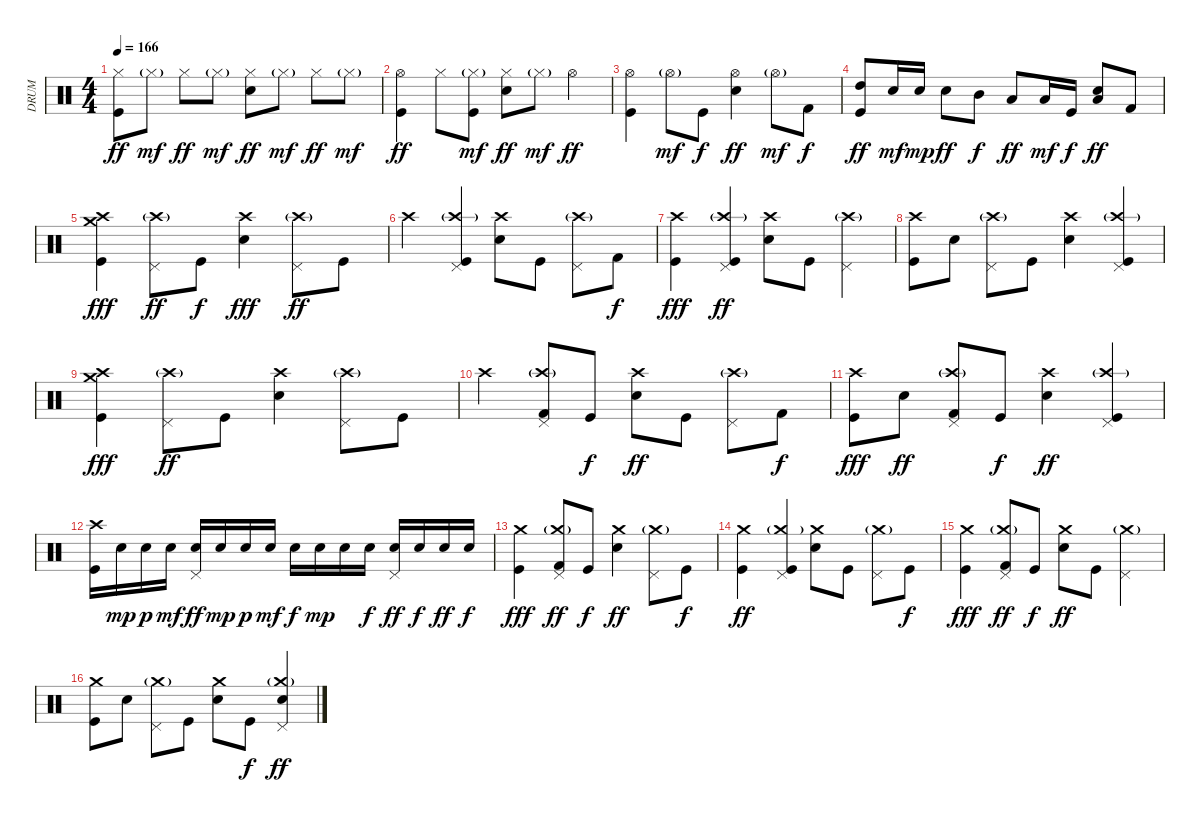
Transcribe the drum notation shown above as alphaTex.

\track ("DRUM" "DRUM") {instrument percussion}
\staff {score}
\articulation defaults
\ts (4 4)
\tempo 166
\clef neutral
\ks c
("Hi-Hat (closed)" "Kick (hit)").8{dy ff} "Hi-Hat (closed)"{g}.8{dy mf} "Hi-Hat (closed)".8{dy ff} "Hi-Hat (closed)"{g}.8{dy mf} ("Hi-Hat (closed)" "Electric Snare (hit)").8{dy ff} "Hi-Hat (closed)"{g}.8{dy mf} "Hi-Hat (closed)".8{dy ff} "Hi-Hat (closed)"{g}.8{dy mf} |
("Hi-Hat (open)" "Kick (hit)").4{dy ff} "Hi-Hat (closed)".8 ("Hi-Hat (closed)"{g} "Kick (hit)").8{dy mf} ("Hi-Hat (closed)" "Electric Snare (hit)").8{dy ff} "Hi-Hat (closed)"{g}.8{dy mf} "Hi-Hat (open)".4{dy ff} |
("Hi-Hat (open)" "Kick (hit)").4 "Hi-Hat (open)"{g}.8{dy mf} "Kick (hit)".8{dy f} ("Hi-Hat (open)" "Electric Snare (hit)").4{dy ff} "Hi-Hat (open)"{g}.8{dy mf} "Kick (hit) 2".8{dy f} |
("High Tom (hit)" "Kick (hit)").8{dy ff} "Electric Snare (hit)".16{dy mf} "Electric Snare (hit)".16{dy mp} "Snare (hit) 2".8{dy ff} "Mid Tom (hit)".8{dy f} "Low Tom (hit)".8{dy ff} "Low Tom (hit)".16{dy mf} "Kick (hit)".16{dy f} ("Electric Snare (hit)" "Low Tom (hit)").8{dy ff} "Kick (hit) 2".8 |
("Crash high (hit)" "Crash medium (hit)" "Kick (hit)").4{dy fff} ("Crash high (hit)"{g} "Pedal Hi-Hat (hit)").8{dy ff} "Kick (hit)".8{dy f} ("Crash high (hit)" "Electric Snare (hit)").4{dy fff} ("Crash high (hit)"{g} "Pedal Hi-Hat (hit)").8{dy ff} "Kick (hit)".8 |
"Crash high (hit)".4 ("Crash high (hit)"{g} "Pedal Hi-Hat (hit)" "Kick (hit)").4 ("Crash high (hit)" "Electric Snare (hit)").8 "Kick (hit)".8 ("Crash high (hit)"{g} "Pedal Hi-Hat (hit)").8 "Kick (hit) 2".8{dy f} |
("Crash high (hit)" "Kick (hit)").4{dy fff} ("Crash high (hit)"{g} "Pedal Hi-Hat (hit)" "Kick (hit)").4{dy ff} ("Crash high (hit)" "Electric Snare (hit)").8 "Kick (hit)".8 ("Crash high (hit)"{g} "Pedal Hi-Hat (hit)").4 |
("Crash high (hit)" "Kick (hit)").8 "Electric Snare (hit)".8 ("Crash high (hit)"{g} "Pedal Hi-Hat (hit)").8 "Kick (hit)".8 ("Crash high (hit)" "Electric Snare (hit)").4 ("Crash high (hit)"{g} "Pedal Hi-Hat (hit)" "Kick (hit)").4 |
("Crash high (hit)" "Crash medium (hit)" "Kick (hit)").4{dy fff} ("Crash high (hit)"{g} "Pedal Hi-Hat (hit)").8{dy ff} "Kick (hit)".8 ("Crash high (hit)" "Electric Snare (hit)").4 ("Crash high (hit)"{g} "Pedal Hi-Hat (hit)").8 "Kick (hit)".8 |
"Crash high (hit)".4 ("Crash high (hit)"{g} "Pedal Hi-Hat (hit)" "Kick (hit) 2").8 "Kick (hit)".8{dy f} ("Crash high (hit)" "Electric Snare (hit)").8{dy ff} "Kick (hit)".8 ("Crash high (hit)"{g} "Pedal Hi-Hat (hit)").8 "Kick (hit) 2".8{dy f} |
("Crash high (hit)" "Kick (hit)").8{dy fff} "Electric Snare (hit)".8{dy ff} ("Crash high (hit)"{g} "Pedal Hi-Hat (hit)" "Kick (hit) 2").8 "Kick (hit)".8{dy f} ("Crash high (hit)" "Electric Snare (hit)").4{dy ff} ("Crash high (hit)"{g} "Pedal Hi-Hat (hit)" "Kick (hit)").4 |
("Crash high (hit)" "Kick (hit)").16 "Electric Snare (hit)".16{dy mp} "Snare (hit) 2".16{dy p} "Electric Snare (hit)".16{dy mf} ("Pedal Hi-Hat (hit)" "Snare (hit) 2").16{dy ff} "Electric Snare (hit)".16{dy mp} "Snare (hit) 2".16{dy p} "Electric Snare (hit)".16{dy mf} "Snare (hit) 2".16{dy f} "Electric Snare (hit)".16{dy mp} "Snare (hit) 2".16 "Electric Snare (hit)".16{dy f} ("Pedal Hi-Hat (hit)" "Snare (hit) 2").16{dy ff} "Electric Snare (hit)".16{dy f} "Snare (hit) 2".16{dy ff} "Electric Snare (hit)".16{dy f} |
("Crash medium (hit)" "Kick (hit)").4{dy fff} ("Crash medium (hit)"{g} "Pedal Hi-Hat (hit)" "Kick (hit) 2").8{dy ff} "Kick (hit)".8{dy f} ("Crash medium (hit)" "Electric Snare (hit)").4{dy ff} ("Crash medium (hit)"{g} "Pedal Hi-Hat (hit)").8 "Kick (hit)".8{dy f} |
("Crash medium (hit)" "Kick (hit)").4{dy ff} ("Crash medium (hit)"{g} "Pedal Hi-Hat (hit)" "Kick (hit)").4 ("Crash medium (hit)" "Electric Snare (hit)").8 "Kick (hit)".8 ("Crash medium (hit)"{g} "Pedal Hi-Hat (hit)").8 "Kick (hit)".8{dy f} |
("Crash medium (hit)" "Kick (hit)").4{dy fff} ("Crash medium (hit)"{g} "Pedal Hi-Hat (hit)" "Kick (hit) 2").8{dy ff} "Kick (hit)".8{dy f} ("Crash medium (hit)" "Electric Snare (hit)").8{dy ff} "Kick (hit)".8 ("Crash medium (hit)"{g} "Pedal Hi-Hat (hit)").4 |
("Crash medium (hit)" "Kick (hit)").8 "Electric Snare (hit)".8 ("Crash medium (hit)"{g} "Pedal Hi-Hat (hit)").8 "Kick (hit)".8 ("Crash medium (hit)" "Electric Snare (hit)").8 "Kick (hit)".8{dy f} ("Crash medium (hit)"{g} "Pedal Hi-Hat (hit)" "Electric Snare (hit)").4{dy ff}
